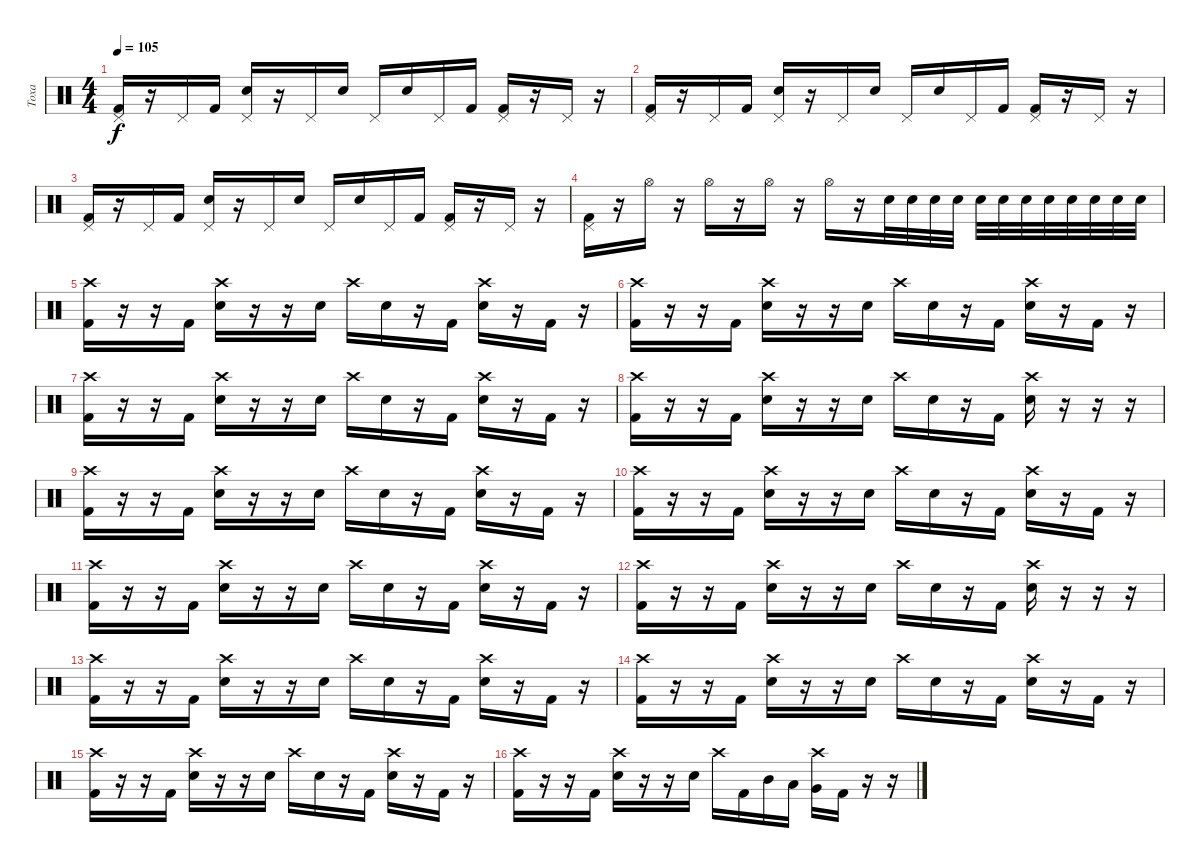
\track ("Toxa" "Toxa") {instrument percussion}
\staff {score}
\articulation defaults
\ts (4 4)
\tempo 105
\clef neutral
\ks c
("Pedal Hi-Hat (hit)" "Kick (hit) 2").16{dy f} r.16 "Pedal Hi-Hat (hit)".16 "Kick (hit) 2".16 ("Pedal Hi-Hat (hit)" "Electric Snare (hit)").16 r.16 "Pedal Hi-Hat (hit)".16 "Electric Snare (hit)".16 "Pedal Hi-Hat (hit)".16 "Electric Snare (hit)".16 "Pedal Hi-Hat (hit)".16 "Kick (hit) 2".16 ("Pedal Hi-Hat (hit)" "Kick (hit) 2").16 r.16 "Pedal Hi-Hat (hit)".16 r.16 |
("Pedal Hi-Hat (hit)" "Kick (hit) 2").16 r.16 "Pedal Hi-Hat (hit)".16 "Kick (hit) 2".16 ("Pedal Hi-Hat (hit)" "Electric Snare (hit)").16 r.16 "Pedal Hi-Hat (hit)".16 "Electric Snare (hit)".16 "Pedal Hi-Hat (hit)".16 "Electric Snare (hit)".16 "Pedal Hi-Hat (hit)".16 "Kick (hit) 2".16 ("Pedal Hi-Hat (hit)" "Kick (hit) 2").16 r.16 "Pedal Hi-Hat (hit)".16 r.16 |
("Pedal Hi-Hat (hit)" "Kick (hit) 2").16 r.16 "Pedal Hi-Hat (hit)".16 "Kick (hit) 2".16 ("Pedal Hi-Hat (hit)" "Electric Snare (hit)").16 r.16 "Pedal Hi-Hat (hit)".16 "Electric Snare (hit)".16 "Pedal Hi-Hat (hit)".16 "Electric Snare (hit)".16 "Pedal Hi-Hat (hit)".16 "Kick (hit) 2".16 ("Pedal Hi-Hat (hit)" "Kick (hit) 2").16 r.16 "Pedal Hi-Hat (hit)".16 r.16 |
("Pedal Hi-Hat (hit)" "Kick (hit) 2").16 r.16 "Hi-Hat (open)".16 r.16 "Hi-Hat (open)".16 r.16 "Hi-Hat (open)".16 r.16 "Hi-Hat (open)".16 r.16 "Electric Snare (hit)".32 "Electric Snare (hit)".32 "Electric Snare (hit)".32 "Electric Snare (hit)".32 "Electric Snare (hit)".32 "Electric Snare (hit)".32 "Electric Snare (hit)".32 "Electric Snare (hit)".32 "Electric Snare (hit)".32 "Electric Snare (hit)".32 "Electric Snare (hit)".32 "Electric Snare (hit)".32 |
("Crash high (hit)" "Kick (hit) 2").16 r.16 r.16 "Kick (hit) 2".16 ("Crash high (hit)" "Electric Snare (hit)").16 r.16 r.16 "Electric Snare (hit)".16 "Crash high (hit)".16 "Electric Snare (hit)".16 r.16 "Kick (hit) 2".16 ("Crash high (hit)" "Electric Snare (hit)").16 r.16 "Kick (hit) 2".16 r.16 |
("Crash high (hit)" "Kick (hit) 2").16 r.16 r.16 "Kick (hit) 2".16 ("Crash high (hit)" "Electric Snare (hit)").16 r.16 r.16 "Electric Snare (hit)".16 "Crash high (hit)".16 "Electric Snare (hit)".16 r.16 "Kick (hit) 2".16 ("Crash high (hit)" "Electric Snare (hit)").16 r.16 "Kick (hit) 2".16 r.16 |
("Crash high (hit)" "Kick (hit) 2").16 r.16 r.16 "Kick (hit) 2".16 ("Crash high (hit)" "Electric Snare (hit)").16 r.16 r.16 "Electric Snare (hit)".16 "Crash high (hit)".16 "Electric Snare (hit)".16 r.16 "Kick (hit) 2".16 ("Crash high (hit)" "Electric Snare (hit)").16 r.16 "Kick (hit) 2".16 r.16 |
("Crash high (hit)" "Kick (hit) 2").16 r.16 r.16 "Kick (hit) 2".16 ("Crash high (hit)" "Electric Snare (hit)").16 r.16 r.16 "Electric Snare (hit)".16 "Crash high (hit)".16 "Electric Snare (hit)".16 r.16 "Kick (hit) 2".16 ("Crash high (hit)" "Electric Snare (hit)").16 r.16 r.16 r.16 |
("Crash high (hit)" "Kick (hit) 2").16 r.16 r.16 "Kick (hit) 2".16 ("Crash high (hit)" "Electric Snare (hit)").16 r.16 r.16 "Electric Snare (hit)".16 "Crash high (hit)".16 "Electric Snare (hit)".16 r.16 "Kick (hit) 2".16 ("Crash high (hit)" "Electric Snare (hit)").16 r.16 "Kick (hit) 2".16 r.16 |
("Crash high (hit)" "Kick (hit) 2").16 r.16 r.16 "Kick (hit) 2".16 ("Crash high (hit)" "Electric Snare (hit)").16 r.16 r.16 "Electric Snare (hit)".16 "Crash high (hit)".16 "Electric Snare (hit)".16 r.16 "Kick (hit) 2".16 ("Crash high (hit)" "Electric Snare (hit)").16 r.16 "Kick (hit) 2".16 r.16 |
("Crash high (hit)" "Kick (hit) 2").16 r.16 r.16 "Kick (hit) 2".16 ("Crash high (hit)" "Electric Snare (hit)").16 r.16 r.16 "Electric Snare (hit)".16 "Crash high (hit)".16 "Electric Snare (hit)".16 r.16 "Kick (hit) 2".16 ("Crash high (hit)" "Electric Snare (hit)").16 r.16 "Kick (hit) 2".16 r.16 |
("Crash high (hit)" "Kick (hit) 2").16 r.16 r.16 "Kick (hit) 2".16 ("Crash high (hit)" "Electric Snare (hit)").16 r.16 r.16 "Electric Snare (hit)".16 "Crash high (hit)".16 "Electric Snare (hit)".16 r.16 "Kick (hit) 2".16 ("Crash high (hit)" "Electric Snare (hit)").16 r.16 r.16 r.16 |
("Crash high (hit)" "Kick (hit) 2").16 r.16 r.16 "Kick (hit) 2".16 ("Crash high (hit)" "Electric Snare (hit)").16 r.16 r.16 "Electric Snare (hit)".16 "Crash high (hit)".16 "Electric Snare (hit)".16 r.16 "Kick (hit) 2".16 ("Crash high (hit)" "Electric Snare (hit)").16 r.16 "Kick (hit) 2".16 r.16 |
("Crash high (hit)" "Kick (hit) 2").16 r.16 r.16 "Kick (hit) 2".16 ("Crash high (hit)" "Electric Snare (hit)").16 r.16 r.16 "Electric Snare (hit)".16 "Crash high (hit)".16 "Electric Snare (hit)".16 r.16 "Kick (hit) 2".16 ("Crash high (hit)" "Electric Snare (hit)").16 r.16 "Kick (hit) 2".16 r.16 |
("Crash high (hit)" "Kick (hit) 2").16 r.16 r.16 "Kick (hit) 2".16 ("Crash high (hit)" "Electric Snare (hit)").16 r.16 r.16 "Electric Snare (hit)".16 "Crash high (hit)".16 "Electric Snare (hit)".16 r.16 "Kick (hit) 2".16 ("Crash high (hit)" "Electric Snare (hit)").16 r.16 "Kick (hit) 2".16 r.16 |
("Crash high (hit)" "Kick (hit) 2").16 r.16 r.16 "Kick (hit) 2".16 ("Crash high (hit)" "Electric Snare (hit)").16 r.16 r.16 "Electric Snare (hit)".16 "Crash high (hit)".16 "Kick (hit) 2".16 "Mid Tom (hit)".16 "Low Tom (hit)".16 ("Crash high (hit)" "Very Low Tom (hit)").16 "Kick (hit) 2".16 r.16 r.16
